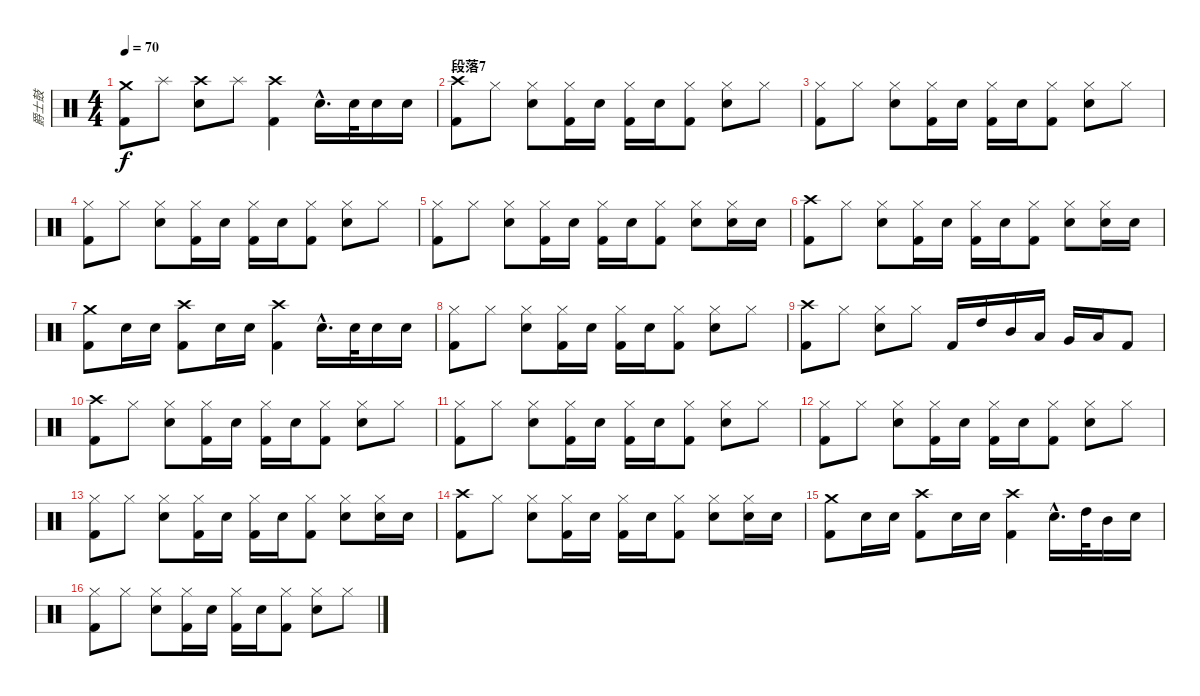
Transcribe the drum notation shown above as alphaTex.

\track ("爵士鼓" "爵士鼓") {instrument percussion}
\staff {score}
\articulation defaults
\ts (4 4)
\tempo 70
\clef neutral
\ks c
("Crash medium (hit)" "Kick (hit) 2").8{dy f} "Splash (hit)".8 ("Crash high (hit)" "Electric Snare (hit)").8 "Splash (hit)".8 ("Crash high (hit)" "Kick (hit) 2").4 "Electric Snare (hit)"{hac}.16{d} "Electric Snare (hit)".32 "Electric Snare (hit)".16 "Electric Snare (hit)".16 |
\section ("" "段落7")
("Crash high (hit)" "Kick (hit) 2").8 "Hi-Hat (closed)".8 ("Hi-Hat (closed)" "Electric Snare (hit)").8 ("Hi-Hat (closed)" "Kick (hit) 2").16 "Electric Snare (hit)".16 ("Hi-Hat (closed)" "Kick (hit) 2").16 "Electric Snare (hit)".16 ("Hi-Hat (closed)" "Kick (hit) 2").8 ("Hi-Hat (closed)" "Electric Snare (hit)").8 "Hi-Hat (closed)".8 |
("Hi-Hat (closed)" "Kick (hit) 2").8 "Hi-Hat (closed)".8 ("Hi-Hat (closed)" "Electric Snare (hit)").8 ("Hi-Hat (closed)" "Kick (hit) 2").16 "Electric Snare (hit)".16 ("Hi-Hat (closed)" "Kick (hit) 2").16 "Electric Snare (hit)".16 ("Hi-Hat (closed)" "Kick (hit) 2").8 ("Hi-Hat (closed)" "Electric Snare (hit)").8 "Hi-Hat (closed)".8 |
("Hi-Hat (closed)" "Kick (hit) 2").8 "Hi-Hat (closed)".8 ("Hi-Hat (closed)" "Electric Snare (hit)").8 ("Hi-Hat (closed)" "Kick (hit) 2").16 "Electric Snare (hit)".16 ("Hi-Hat (closed)" "Kick (hit) 2").16 "Electric Snare (hit)".16 ("Hi-Hat (closed)" "Kick (hit) 2").8 ("Hi-Hat (closed)" "Electric Snare (hit)").8 "Hi-Hat (closed)".8 |
("Hi-Hat (closed)" "Kick (hit) 2").8 "Hi-Hat (closed)".8 ("Hi-Hat (closed)" "Electric Snare (hit)").8 ("Hi-Hat (closed)" "Kick (hit) 2").16 "Electric Snare (hit)".16 ("Hi-Hat (closed)" "Kick (hit) 2").16 "Electric Snare (hit)".16 ("Hi-Hat (closed)" "Kick (hit) 2").8 ("Hi-Hat (closed)" "Electric Snare (hit)").8 ("Hi-Hat (closed)" "Electric Snare (hit)").16 "Electric Snare (hit)".16 |
("Crash high (hit)" "Kick (hit) 2").8 "Hi-Hat (closed)".8 ("Hi-Hat (closed)" "Electric Snare (hit)").8 ("Hi-Hat (closed)" "Kick (hit) 2").16 "Electric Snare (hit)".16 ("Hi-Hat (closed)" "Kick (hit) 2").16 "Electric Snare (hit)".16 ("Hi-Hat (closed)" "Kick (hit) 2").8 ("Hi-Hat (closed)" "Electric Snare (hit)").8 ("Hi-Hat (closed)" "Electric Snare (hit)").16 "Electric Snare (hit)".16 |
("Crash medium (hit)" "Kick (hit) 2").8 "Electric Snare (hit)".16 "Electric Snare (hit)".16 ("Crash high (hit)" "Kick (hit) 2").8 "Electric Snare (hit)".16 "Electric Snare (hit)".16 ("Crash high (hit)" "Kick (hit) 2").4 "Electric Snare (hit)"{hac}.16{d} "Electric Snare (hit)".32 "Electric Snare (hit)".16 "Electric Snare (hit)".16 |
("Hi-Hat (closed)" "Kick (hit) 2").8 "Hi-Hat (closed)".8 ("Hi-Hat (closed)" "Electric Snare (hit)").8 ("Hi-Hat (closed)" "Kick (hit) 2").16 "Electric Snare (hit)".16 ("Hi-Hat (closed)" "Kick (hit) 2").16 "Electric Snare (hit)".16 ("Hi-Hat (closed)" "Kick (hit) 2").8 ("Hi-Hat (closed)" "Electric Snare (hit)").8 "Hi-Hat (closed)".8 |
("Crash high (hit)" "Kick (hit) 2").8 "Hi-Hat (closed)".8 ("Hi-Hat (closed)" "Electric Snare (hit)").8 "Hi-Hat (closed)".8 "Kick (hit) 2".16 "High Tom (hit)".16 "Mid Tom (hit)".16 "Low Tom (hit)".16 "Very Low Tom (hit)".16 "Low Floor Tom (hit)".16 "Kick (hit) 2".8 |
("Crash high (hit)" "Kick (hit) 2").8 "Hi-Hat (closed)".8 ("Hi-Hat (closed)" "Electric Snare (hit)").8 ("Hi-Hat (closed)" "Kick (hit) 2").16 "Electric Snare (hit)".16 ("Hi-Hat (closed)" "Kick (hit) 2").16 "Electric Snare (hit)".16 ("Hi-Hat (closed)" "Kick (hit) 2").8 ("Hi-Hat (closed)" "Electric Snare (hit)").8 "Hi-Hat (closed)".8 |
("Hi-Hat (closed)" "Kick (hit) 2").8 "Hi-Hat (closed)".8 ("Hi-Hat (closed)" "Electric Snare (hit)").8 ("Hi-Hat (closed)" "Kick (hit) 2").16 "Electric Snare (hit)".16 ("Hi-Hat (closed)" "Kick (hit) 2").16 "Electric Snare (hit)".16 ("Hi-Hat (closed)" "Kick (hit) 2").8 ("Hi-Hat (closed)" "Electric Snare (hit)").8 "Hi-Hat (closed)".8 |
("Hi-Hat (closed)" "Kick (hit) 2").8 "Hi-Hat (closed)".8 ("Hi-Hat (closed)" "Electric Snare (hit)").8 ("Hi-Hat (closed)" "Kick (hit) 2").16 "Electric Snare (hit)".16 ("Hi-Hat (closed)" "Kick (hit) 2").16 "Electric Snare (hit)".16 ("Hi-Hat (closed)" "Kick (hit) 2").8 ("Hi-Hat (closed)" "Electric Snare (hit)").8 "Hi-Hat (closed)".8 |
("Hi-Hat (closed)" "Kick (hit) 2").8 "Hi-Hat (closed)".8 ("Hi-Hat (closed)" "Electric Snare (hit)").8 ("Hi-Hat (closed)" "Kick (hit) 2").16 "Electric Snare (hit)".16 ("Hi-Hat (closed)" "Kick (hit) 2").16 "Electric Snare (hit)".16 ("Hi-Hat (closed)" "Kick (hit) 2").8 ("Hi-Hat (closed)" "Electric Snare (hit)").8 ("Hi-Hat (closed)" "Electric Snare (hit)").16 "Electric Snare (hit)".16 |
("Crash high (hit)" "Kick (hit) 2").8 "Hi-Hat (closed)".8 ("Hi-Hat (closed)" "Electric Snare (hit)").8 ("Hi-Hat (closed)" "Kick (hit) 2").16 "Electric Snare (hit)".16 ("Hi-Hat (closed)" "Kick (hit) 2").16 "Electric Snare (hit)".16 ("Hi-Hat (closed)" "Kick (hit) 2").8 ("Hi-Hat (closed)" "Electric Snare (hit)").8 ("Hi-Hat (closed)" "Electric Snare (hit)").16 "Electric Snare (hit)".16 |
("Crash medium (hit)" "Kick (hit) 2").8 "Electric Snare (hit)".16 "Electric Snare (hit)".16 ("Crash high (hit)" "Kick (hit) 2").8 "Electric Snare (hit)".16 "Electric Snare (hit)".16 ("Crash high (hit)" "Kick (hit) 2").4 "Electric Snare (hit)"{hac}.16{d} "High Tom (hit)".32 "Mid Tom (hit)".16 "Electric Snare (hit)".16 |
("Hi-Hat (closed)" "Kick (hit) 2").8 "Hi-Hat (closed)".8 ("Hi-Hat (closed)" "Electric Snare (hit)").8 ("Hi-Hat (closed)" "Kick (hit) 2").16 "Electric Snare (hit)".16 ("Hi-Hat (closed)" "Kick (hit) 2").16 "Electric Snare (hit)".16 ("Hi-Hat (closed)" "Kick (hit) 2").8 ("Hi-Hat (closed)" "Electric Snare (hit)").8 "Hi-Hat (closed)".8
